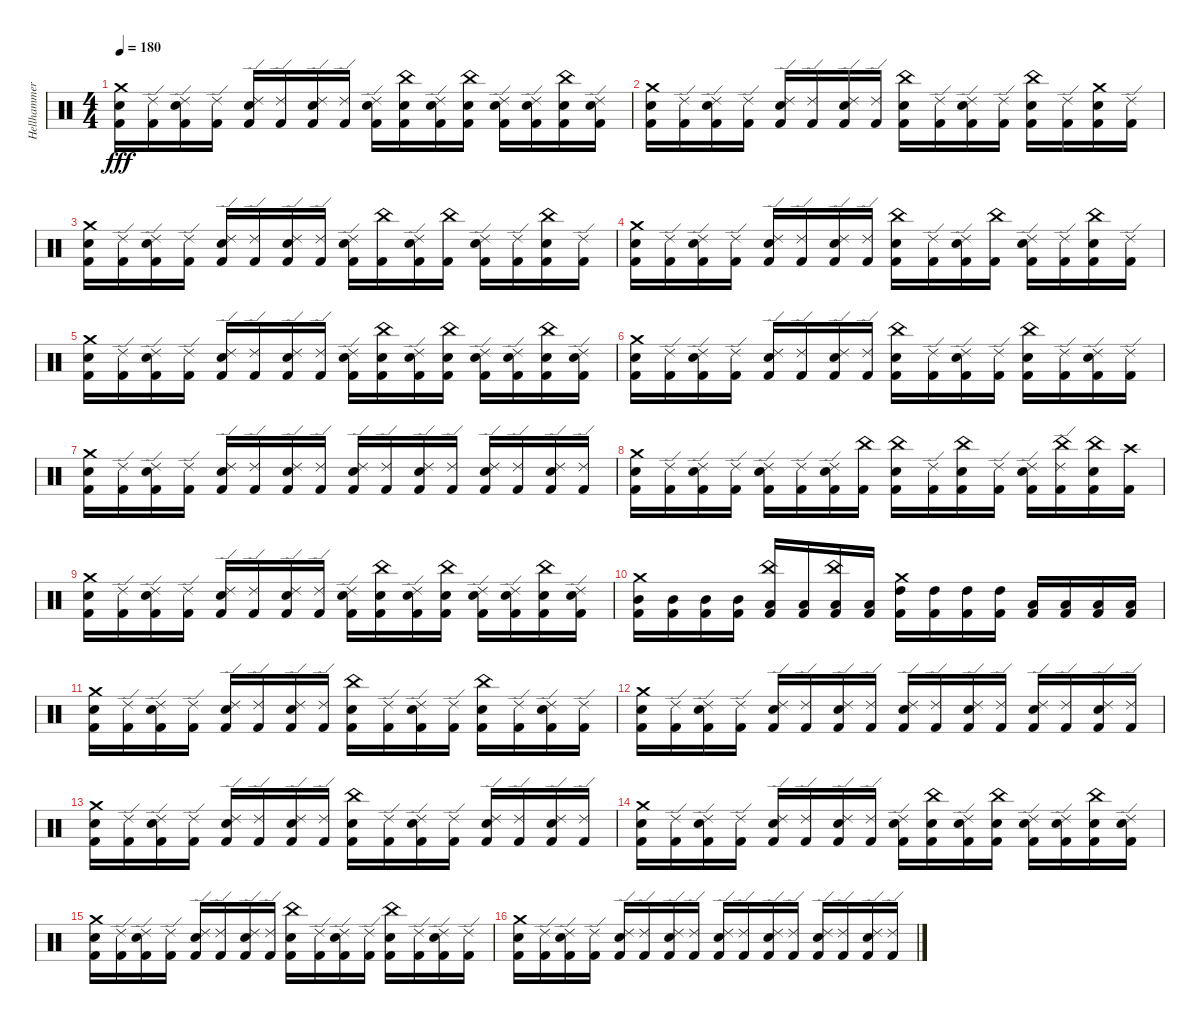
\track ("Hellhammer (Drums)" "Hellhammer") {instrument percussion}
\staff {score}
\articulation defaults
\ts (4 4)
\tempo 180
\clef neutral
\ks c
("Crash medium (hit)" "Electric Snare (hit)" "Kick (hit) 2").16{dy fff} ("Ride (edge) 2" "Kick (hit) 2").16 ("Ride (edge) 2" "Electric Snare (hit)" "Kick (hit) 2").16 ("Ride (edge) 2" "Kick (hit) 2").16 ("Ride (edge) 2" "Electric Snare (hit)" "Kick (hit) 2").16 ("Ride (edge) 2" "Kick (hit) 2").16 ("Ride (edge) 2" "Electric Snare (hit)" "Kick (hit) 2").16 ("Ride (edge) 2" "Kick (hit) 2").16 ("Ride (edge) 2" "Electric Snare (hit)" "Kick (hit) 2").16 ("China (hit)" "Electric Snare (hit)" "Kick (hit) 2").16 ("Ride (edge) 2" "Electric Snare (hit)" "Kick (hit) 2").16 ("China (hit)" "Electric Snare (hit)" "Kick (hit) 2").16 ("Ride (edge) 2" "Electric Snare (hit)" "Kick (hit) 2").16 ("Ride (edge) 2" "Electric Snare (hit)" "Kick (hit) 2").16 ("China (hit)" "Electric Snare (hit)" "Kick (hit) 2").16 ("Ride (edge) 2" "Electric Snare (hit)" "Kick (hit) 2").16 |
("Crash medium (hit)" "Electric Snare (hit)" "Kick (hit) 2").16 ("Ride (edge) 2" "Kick (hit) 2").16 ("Ride (edge) 2" "Electric Snare (hit)" "Kick (hit) 2").16 ("Ride (edge) 2" "Kick (hit) 2").16 ("Ride (edge) 2" "Electric Snare (hit)" "Kick (hit) 2").16 ("Ride (edge) 2" "Kick (hit) 2").16 ("Ride (edge) 2" "Electric Snare (hit)" "Kick (hit) 2").16 ("Ride (edge) 2" "Kick (hit) 2").16 ("China (hit)" "Electric Snare (hit)" "Kick (hit) 2").16 ("Ride (edge) 2" "Kick (hit) 2").16 ("Ride (edge) 2" "Electric Snare (hit)" "Kick (hit) 2").16 ("Ride (edge) 2" "Kick (hit) 2").16 ("China (hit)" "Electric Snare (hit)" "Kick (hit) 2").16 ("Ride (edge) 2" "Kick (hit) 2").16 ("Crash medium (hit)" "Electric Snare (hit)" "Kick (hit) 2").16 ("Ride (edge) 2" "Kick (hit) 2").16 |
("Crash medium (hit)" "Electric Snare (hit)" "Kick (hit) 2").16 ("Ride (edge) 2" "Kick (hit) 2").16 ("Ride (edge) 2" "Electric Snare (hit)" "Kick (hit) 2").16 ("Ride (edge) 2" "Kick (hit) 2").16 ("Ride (edge) 2" "Electric Snare (hit)" "Kick (hit) 2").16 ("Ride (edge) 2" "Kick (hit) 2").16 ("Ride (edge) 2" "Electric Snare (hit)" "Kick (hit) 2").16 ("Ride (edge) 2" "Kick (hit) 2").16 ("Ride (edge) 2" "Electric Snare (hit)" "Kick (hit) 2").16 ("China (hit)" "Kick (hit) 2").16 ("Ride (edge) 2" "Electric Snare (hit)" "Kick (hit) 2").16 ("China (hit)" "Kick (hit) 2").16 ("Ride (edge) 2" "Electric Snare (hit)" "Kick (hit) 2").16 ("Ride (edge) 2" "Kick (hit) 2").16 ("China (hit)" "Electric Snare (hit)" "Kick (hit) 2").16 ("Ride (edge) 2" "Kick (hit) 2").16 |
("Crash medium (hit)" "Electric Snare (hit)" "Kick (hit) 2").16 ("Ride (edge) 2" "Kick (hit) 2").16 ("Ride (edge) 2" "Electric Snare (hit)" "Kick (hit) 2").16 ("Ride (edge) 2" "Kick (hit) 2").16 ("Ride (edge) 2" "Electric Snare (hit)" "Kick (hit) 2").16 ("Ride (edge) 2" "Kick (hit) 2").16 ("Ride (edge) 2" "Electric Snare (hit)" "Kick (hit) 2").16 ("Ride (edge) 2" "Kick (hit) 2").16 ("China (hit)" "Electric Snare (hit)" "Kick (hit) 2").16 ("Ride (edge) 2" "Kick (hit) 2").16 ("Ride (edge) 2" "Electric Snare (hit)" "Kick (hit) 2").16 ("China (hit)" "Kick (hit) 2").16 ("Ride (edge) 2" "Electric Snare (hit)" "Kick (hit) 2").16 ("Ride (edge) 2" "Kick (hit) 2").16 ("China (hit)" "Electric Snare (hit)" "Kick (hit) 2").16 ("Ride (edge) 2" "Kick (hit) 2").16 |
("Crash medium (hit)" "Electric Snare (hit)" "Kick (hit) 2").16 ("Ride (edge) 2" "Kick (hit) 2").16 ("Ride (edge) 2" "Electric Snare (hit)" "Kick (hit) 2").16 ("Ride (edge) 2" "Kick (hit) 2").16 ("Ride (edge) 2" "Electric Snare (hit)" "Kick (hit) 2").16 ("Ride (edge) 2" "Kick (hit) 2").16 ("Ride (edge) 2" "Electric Snare (hit)" "Kick (hit) 2").16 ("Ride (edge) 2" "Kick (hit) 2").16 ("Ride (edge) 2" "Electric Snare (hit)" "Kick (hit) 2").16 ("China (hit)" "Electric Snare (hit)" "Kick (hit) 2").16 ("Ride (edge) 2" "Electric Snare (hit)" "Kick (hit) 2").16 ("China (hit)" "Electric Snare (hit)" "Kick (hit) 2").16 ("Ride (edge) 2" "Electric Snare (hit)" "Kick (hit) 2").16 ("Ride (edge) 2" "Electric Snare (hit)" "Kick (hit) 2").16 ("China (hit)" "Electric Snare (hit)" "Kick (hit) 2").16 ("Ride (edge) 2" "Electric Snare (hit)" "Kick (hit) 2").16 |
("Crash medium (hit)" "Electric Snare (hit)" "Kick (hit) 2").16 ("Ride (edge) 2" "Kick (hit) 2").16 ("Ride (edge) 2" "Electric Snare (hit)" "Kick (hit) 2").16 ("Ride (edge) 2" "Kick (hit) 2").16 ("Ride (edge) 2" "Electric Snare (hit)" "Kick (hit) 2").16 ("Ride (edge) 2" "Kick (hit) 2").16 ("Ride (edge) 2" "Electric Snare (hit)" "Kick (hit) 2").16 ("Ride (edge) 2" "Kick (hit) 2").16 ("China (hit)" "Electric Snare (hit)" "Kick (hit) 2").16 ("Ride (edge) 2" "Kick (hit) 2").16 ("Ride (edge) 2" "Electric Snare (hit)" "Kick (hit) 2").16 ("Ride (edge) 2" "Kick (hit) 2").16 ("China (hit)" "Electric Snare (hit)" "Kick (hit) 2").16 ("Ride (edge) 2" "Kick (hit) 2").16 ("Ride (edge) 2" "Electric Snare (hit)" "Kick (hit) 2").16 ("Ride (edge) 2" "Kick (hit) 2").16 |
("Crash medium (hit)" "Electric Snare (hit)" "Kick (hit) 2").16 ("Ride (edge) 2" "Kick (hit) 2").16 ("Ride (edge) 2" "Electric Snare (hit)" "Kick (hit) 2").16 ("Ride (edge) 2" "Kick (hit) 2").16 ("Ride (edge) 2" "Electric Snare (hit)" "Kick (hit) 2").16 ("Ride (edge) 2" "Kick (hit) 2").16 ("Ride (edge) 2" "Electric Snare (hit)" "Kick (hit) 2").16 ("Ride (edge) 2" "Kick (hit) 2").16 ("Ride (edge) 2" "Electric Snare (hit)" "Kick (hit) 2").16 ("Ride (edge) 2" "Kick (hit) 2").16 ("Ride (edge) 2" "Electric Snare (hit)" "Kick (hit) 2").16 ("Ride (edge) 2" "Kick (hit) 2").16 ("Ride (edge) 2" "Electric Snare (hit)" "Kick (hit) 2").16 ("Ride (edge) 2" "Kick (hit) 2").16 ("Ride (edge) 2" "Electric Snare (hit)" "Kick (hit) 2").16 ("Ride (edge) 2" "Kick (hit) 2").16 |
("Crash medium (hit)" "Electric Snare (hit)" "Kick (hit) 2").16 ("Ride (edge) 2" "Kick (hit) 2").16 ("Ride (edge) 2" "Electric Snare (hit)" "Kick (hit) 2").16 ("Ride (edge) 2" "Kick (hit) 2").16 ("Ride (edge) 2" "Electric Snare (hit)" "Kick (hit) 2").16 ("Ride (edge) 2" "Kick (hit) 2").16 ("Ride (edge) 2" "Electric Snare (hit)" "Kick (hit) 2").16 ("China (hit)" "Kick (hit) 2").16 ("China (hit)" "Electric Snare (hit)" "Kick (hit) 2").16 ("Ride (edge) 2" "Kick (hit) 2").16 ("China (hit)" "Electric Snare (hit)" "Kick (hit) 2").16 ("Ride (edge) 2" "Kick (hit) 2").16 ("Ride (edge) 2" "Electric Snare (hit)" "Kick (hit) 2").16 ("Ride (edge) 2" "China (hit)" "Kick (hit) 2").16 ("China (hit)" "Electric Snare (hit)" "Kick (hit) 2").16 ("Crash high (hit)" "Kick (hit) 2").16 |
("Crash medium (hit)" "Electric Snare (hit)" "Kick (hit) 2").16 ("Ride (edge) 2" "Kick (hit) 2").16 ("Ride (edge) 2" "Electric Snare (hit)" "Kick (hit) 2").16 ("Ride (edge) 2" "Kick (hit) 2").16 ("Ride (edge) 2" "Electric Snare (hit)" "Kick (hit) 2").16 ("Ride (edge) 2" "Kick (hit) 2").16 ("Ride (edge) 2" "Electric Snare (hit)" "Kick (hit) 2").16 ("Ride (edge) 2" "Kick (hit) 2").16 ("Ride (edge) 2" "Electric Snare (hit)" "Kick (hit) 2").16 ("China (hit)" "Electric Snare (hit)" "Kick (hit) 2").16 ("Ride (edge) 2" "Electric Snare (hit)" "Kick (hit) 2").16 ("China (hit)" "Electric Snare (hit)" "Kick (hit) 2").16 ("Ride (edge) 2" "Electric Snare (hit)" "Kick (hit) 2").16 ("Ride (edge) 2" "Electric Snare (hit)" "Kick (hit) 2").16 ("China (hit)" "Electric Snare (hit)" "Kick (hit) 2").16 ("Ride (edge) 2" "Electric Snare (hit)" "Kick (hit) 2").16 |
("Mid Tom (hit)" "Crash medium (hit)" "Kick (hit) 2").16 ("Mid Tom (hit)" "Kick (hit) 2").16 ("Mid Tom (hit)" "Kick (hit) 2").16 ("Mid Tom (hit)" "Kick (hit) 2").16 ("Low Tom (hit)" "China (hit)" "Kick (hit) 2").16 ("Low Tom (hit)" "Kick (hit) 2").16 ("Low Tom (hit)" "China (hit)" "Kick (hit) 2").16 ("Low Tom (hit)" "Kick (hit) 2").16 ("High Tom (hit)" "Crash medium (hit)" "Kick (hit) 2").16 ("High Tom (hit)" "Kick (hit) 2").16 ("High Tom (hit)" "Kick (hit) 2").16 ("High Tom (hit)" "Kick (hit) 2").16 ("Low Tom (hit)" "Kick (hit) 2").16 ("Low Tom (hit)" "Kick (hit) 2").16 ("Low Tom (hit)" "Kick (hit) 2").16 ("Low Tom (hit)" "Kick (hit) 2").16 |
("Crash medium (hit)" "Electric Snare (hit)" "Kick (hit) 2").16 ("Ride (edge) 2" "Kick (hit) 2").16 ("Ride (edge) 2" "Electric Snare (hit)" "Kick (hit) 2").16 ("Ride (edge) 2" "Kick (hit) 2").16 ("Ride (edge) 2" "Electric Snare (hit)" "Kick (hit) 2").16 ("Ride (edge) 2" "Kick (hit) 2").16 ("Ride (edge) 2" "Electric Snare (hit)" "Kick (hit) 2").16 ("Ride (edge) 2" "Kick (hit) 2").16 ("China (hit)" "Electric Snare (hit)" "Kick (hit) 2").16 ("Ride (edge) 2" "Kick (hit) 2").16 ("Ride (edge) 2" "Electric Snare (hit)" "Kick (hit) 2").16 ("Ride (edge) 2" "Kick (hit) 2").16 ("China (hit)" "Electric Snare (hit)" "Kick (hit) 2").16 ("Ride (edge) 2" "Kick (hit) 2").16 ("Ride (edge) 2" "Electric Snare (hit)" "Kick (hit) 2").16 ("Ride (edge) 2" "Kick (hit) 2").16 |
("Crash medium (hit)" "Electric Snare (hit)" "Kick (hit) 2").16 ("Ride (edge) 2" "Kick (hit) 2").16 ("Ride (edge) 2" "Electric Snare (hit)" "Kick (hit) 2").16 ("Ride (edge) 2" "Kick (hit) 2").16 ("Ride (edge) 2" "Electric Snare (hit)" "Kick (hit) 2").16 ("Ride (edge) 2" "Kick (hit) 2").16 ("Ride (edge) 2" "Electric Snare (hit)" "Kick (hit) 2").16 ("Ride (edge) 2" "Kick (hit) 2").16 ("Ride (edge) 2" "Electric Snare (hit)" "Kick (hit) 2").16 ("Ride (edge) 2" "Kick (hit) 2").16 ("Ride (edge) 2" "Electric Snare (hit)" "Kick (hit) 2").16 ("Ride (edge) 2" "Kick (hit) 2").16 ("Ride (edge) 2" "Electric Snare (hit)" "Kick (hit) 2").16 ("Ride (edge) 2" "Kick (hit) 2").16 ("Ride (edge) 2" "Electric Snare (hit)" "Kick (hit) 2").16 ("Ride (edge) 2" "Kick (hit) 2").16 |
("Crash medium (hit)" "Electric Snare (hit)" "Kick (hit) 2").16 ("Ride (edge) 2" "Kick (hit) 2").16 ("Ride (edge) 2" "Electric Snare (hit)" "Kick (hit) 2").16 ("Ride (edge) 2" "Kick (hit) 2").16 ("Ride (edge) 2" "Electric Snare (hit)" "Kick (hit) 2").16 ("Ride (edge) 2" "Kick (hit) 2").16 ("Ride (edge) 2" "Electric Snare (hit)" "Kick (hit) 2").16 ("Ride (edge) 2" "Kick (hit) 2").16 ("China (hit)" "Electric Snare (hit)" "Kick (hit) 2").16 ("Ride (edge) 2" "Kick (hit) 2").16 ("Ride (edge) 2" "Electric Snare (hit)" "Kick (hit) 2").16 ("Ride (edge) 2" "Kick (hit) 2").16 ("Ride (edge) 2" "Electric Snare (hit)" "Kick (hit) 2").16 ("Ride (edge) 2" "Kick (hit) 2").16 ("Ride (edge) 2" "Electric Snare (hit)" "Kick (hit) 2").16 ("Ride (edge) 2" "Kick (hit) 2").16 |
("Crash medium (hit)" "Electric Snare (hit)" "Kick (hit) 2").16 ("Ride (edge) 2" "Kick (hit) 2").16 ("Ride (edge) 2" "Electric Snare (hit)" "Kick (hit) 2").16 ("Ride (edge) 2" "Kick (hit) 2").16 ("Ride (edge) 2" "Electric Snare (hit)" "Kick (hit) 2").16 ("Ride (edge) 2" "Kick (hit) 2").16 ("Ride (edge) 2" "Electric Snare (hit)" "Kick (hit) 2").16 ("Ride (edge) 2" "Kick (hit) 2").16 ("Ride (edge) 2" "Electric Snare (hit)" "Kick (hit) 2").16 ("China (hit)" "Electric Snare (hit)" "Kick (hit) 2").16 ("Ride (edge) 2" "Electric Snare (hit)" "Kick (hit) 2").16 ("China (hit)" "Electric Snare (hit)" "Kick (hit) 2").16 ("Ride (edge) 2" "Electric Snare (hit)" "Kick (hit) 2").16 ("Ride (edge) 2" "Electric Snare (hit)" "Kick (hit) 2").16 ("China (hit)" "Electric Snare (hit)" "Kick (hit) 2").16 ("Ride (edge) 2" "Electric Snare (hit)" "Kick (hit) 2").16 |
("Crash medium (hit)" "Electric Snare (hit)" "Kick (hit) 2").16 ("Ride (edge) 2" "Kick (hit) 2").16 ("Ride (edge) 2" "Electric Snare (hit)" "Kick (hit) 2").16 ("Ride (edge) 2" "Kick (hit) 2").16 ("Ride (edge) 2" "Electric Snare (hit)" "Kick (hit) 2").16 ("Ride (edge) 2" "Kick (hit) 2").16 ("Ride (edge) 2" "Electric Snare (hit)" "Kick (hit) 2").16 ("Ride (edge) 2" "Kick (hit) 2").16 ("China (hit)" "Electric Snare (hit)" "Kick (hit) 2").16 ("Ride (edge) 2" "Kick (hit) 2").16 ("Ride (edge) 2" "Electric Snare (hit)" "Kick (hit) 2").16 ("Ride (edge) 2" "Kick (hit) 2").16 ("China (hit)" "Electric Snare (hit)" "Kick (hit) 2").16 ("Ride (edge) 2" "Kick (hit) 2").16 ("Ride (edge) 2" "Electric Snare (hit)" "Kick (hit) 2").16 ("Ride (edge) 2" "Kick (hit) 2").16 |
("Crash medium (hit)" "Electric Snare (hit)" "Kick (hit) 2").16 ("Ride (edge) 2" "Kick (hit) 2").16 ("Ride (edge) 2" "Electric Snare (hit)" "Kick (hit) 2").16 ("Ride (edge) 2" "Kick (hit) 2").16 ("Ride (edge) 2" "Electric Snare (hit)" "Kick (hit) 2").16 ("Ride (edge) 2" "Kick (hit) 2").16 ("Ride (edge) 2" "Electric Snare (hit)" "Kick (hit) 2").16 ("Ride (edge) 2" "Kick (hit) 2").16 ("Ride (edge) 2" "Electric Snare (hit)" "Kick (hit) 2").16 ("Ride (edge) 2" "Kick (hit) 2").16 ("Ride (edge) 2" "Electric Snare (hit)" "Kick (hit) 2").16 ("Ride (edge) 2" "Kick (hit) 2").16 ("Ride (edge) 2" "Electric Snare (hit)" "Kick (hit) 2").16 ("Ride (edge) 2" "Kick (hit) 2").16 ("Ride (edge) 2" "Electric Snare (hit)" "Kick (hit) 2").16 ("Ride (edge) 2" "Kick (hit) 2").16
